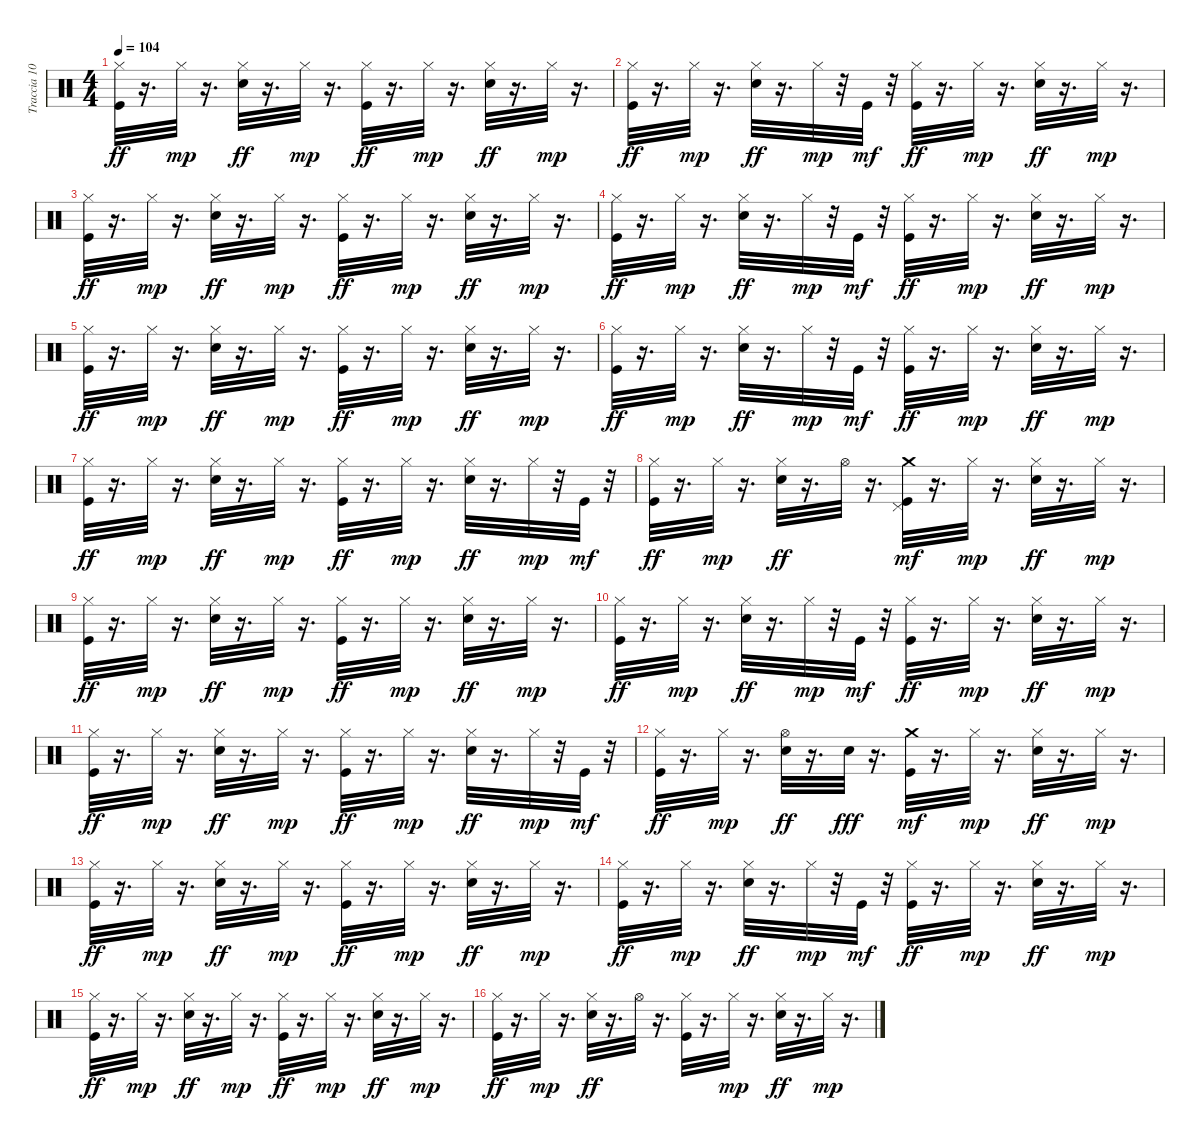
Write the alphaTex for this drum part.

\track ("Traccia 10" "Traccia 10") {instrument percussion}
\staff {score}
\articulation defaults
\ts (4 4)
\tempo 104
\clef neutral
\ks c
("Kick (hit)" "Hi-Hat (closed)").32{dy ff} r.16{d} "Hi-Hat (closed)".32{dy mp} r.16{d} ("Snare (hit) 2" "Hi-Hat (closed)").32{dy ff} r.16{d} "Hi-Hat (closed)".32{dy mp} r.16{d} ("Kick (hit)" "Hi-Hat (closed)").32{dy ff} r.16{d} "Hi-Hat (closed)".32{dy mp} r.16{d} ("Snare (hit) 2" "Hi-Hat (closed)").32{dy ff} r.16{d} "Hi-Hat (closed)".32{dy mp} r.16{d} |
("Kick (hit)" "Hi-Hat (closed)").32{dy ff} r.16{d} "Hi-Hat (closed)".32{dy mp} r.16{d} ("Snare (hit) 2" "Hi-Hat (closed)").32{dy ff} r.16{d} "Hi-Hat (closed)".32{dy mp} r.32 "Kick (hit)".32{dy mf} r.32 ("Kick (hit)" "Hi-Hat (closed)").32{dy ff} r.16{d} "Hi-Hat (closed)".32{dy mp} r.16{d} ("Snare (hit) 2" "Hi-Hat (closed)").32{dy ff} r.16{d} "Hi-Hat (closed)".32{dy mp} r.16{d} |
("Kick (hit)" "Hi-Hat (closed)").32{dy ff} r.16{d} "Hi-Hat (closed)".32{dy mp} r.16{d} ("Snare (hit) 2" "Hi-Hat (closed)").32{dy ff} r.16{d} "Hi-Hat (closed)".32{dy mp} r.16{d} ("Kick (hit)" "Hi-Hat (closed)").32{dy ff} r.16{d} "Hi-Hat (closed)".32{dy mp} r.16{d} ("Snare (hit) 2" "Hi-Hat (closed)").32{dy ff} r.16{d} "Hi-Hat (closed)".32{dy mp} r.16{d} |
("Kick (hit)" "Hi-Hat (closed)").32{dy ff} r.16{d} "Hi-Hat (closed)".32{dy mp} r.16{d} ("Snare (hit) 2" "Hi-Hat (closed)").32{dy ff} r.16{d} "Hi-Hat (closed)".32{dy mp} r.32 "Kick (hit)".32{dy mf} r.32 ("Kick (hit)" "Hi-Hat (closed)").32{dy ff} r.16{d} "Hi-Hat (closed)".32{dy mp} r.16{d} ("Snare (hit) 2" "Hi-Hat (closed)").32{dy ff} r.16{d} "Hi-Hat (closed)".32{dy mp} r.16{d} |
("Kick (hit)" "Hi-Hat (closed)").32{dy ff} r.16{d} "Hi-Hat (closed)".32{dy mp} r.16{d} ("Snare (hit) 2" "Hi-Hat (closed)").32{dy ff} r.16{d} "Hi-Hat (closed)".32{dy mp} r.16{d} ("Kick (hit)" "Hi-Hat (closed)").32{dy ff} r.16{d} "Hi-Hat (closed)".32{dy mp} r.16{d} ("Snare (hit) 2" "Hi-Hat (closed)").32{dy ff} r.16{d} "Hi-Hat (closed)".32{dy mp} r.16{d} |
("Kick (hit)" "Hi-Hat (closed)").32{dy ff} r.16{d} "Hi-Hat (closed)".32{dy mp} r.16{d} ("Snare (hit) 2" "Hi-Hat (closed)").32{dy ff} r.16{d} "Hi-Hat (closed)".32{dy mp} r.32 "Kick (hit)".32{dy mf} r.32 ("Kick (hit)" "Hi-Hat (closed)").32{dy ff} r.16{d} "Hi-Hat (closed)".32{dy mp} r.16{d} ("Snare (hit) 2" "Hi-Hat (closed)").32{dy ff} r.16{d} "Hi-Hat (closed)".32{dy mp} r.16{d} |
("Kick (hit)" "Hi-Hat (closed)").32{dy ff} r.16{d} "Hi-Hat (closed)".32{dy mp} r.16{d} ("Snare (hit) 2" "Hi-Hat (closed)").32{dy ff} r.16{d} "Hi-Hat (closed)".32{dy mp} r.16{d} ("Kick (hit)" "Hi-Hat (closed)").32{dy ff} r.16{d} "Hi-Hat (closed)".32{dy mp} r.16{d} ("Snare (hit) 2" "Hi-Hat (closed)").32{dy ff} r.16{d} "Hi-Hat (closed)".32{dy mp} r.32 "Kick (hit)".32{dy mf} r.32 |
("Kick (hit)" "Hi-Hat (closed)").32{dy ff} r.16{d} "Hi-Hat (closed)".32{dy mp} r.16{d} ("Snare (hit) 2" "Hi-Hat (closed)").32{dy ff} r.16{d} "Hi-Hat (open)".32 r.16{d} ("Kick (hit)" "Pedal Hi-Hat (hit)" "Crash medium (hit)").32{dy mf} r.16{d} "Hi-Hat (closed)".32{dy mp} r.16{d} ("Snare (hit) 2" "Hi-Hat (closed)").32{dy ff} r.16{d} "Hi-Hat (closed)".32{dy mp} r.16{d} |
("Kick (hit)" "Hi-Hat (closed)").32{dy ff} r.16{d} "Hi-Hat (closed)".32{dy mp} r.16{d} ("Snare (hit) 2" "Hi-Hat (closed)").32{dy ff} r.16{d} "Hi-Hat (closed)".32{dy mp} r.16{d} ("Kick (hit)" "Hi-Hat (closed)").32{dy ff} r.16{d} "Hi-Hat (closed)".32{dy mp} r.16{d} ("Snare (hit) 2" "Hi-Hat (closed)").32{dy ff} r.16{d} "Hi-Hat (closed)".32{dy mp} r.16{d} |
("Kick (hit)" "Hi-Hat (closed)").32{dy ff} r.16{d} "Hi-Hat (closed)".32{dy mp} r.16{d} ("Snare (hit) 2" "Hi-Hat (closed)").32{dy ff} r.16{d} "Hi-Hat (closed)".32{dy mp} r.32 "Kick (hit)".32{dy mf} r.32 ("Kick (hit)" "Hi-Hat (closed)").32{dy ff} r.16{d} "Hi-Hat (closed)".32{dy mp} r.16{d} ("Snare (hit) 2" "Hi-Hat (closed)").32{dy ff} r.16{d} "Hi-Hat (closed)".32{dy mp} r.16{d} |
("Kick (hit)" "Hi-Hat (closed)").32{dy ff} r.16{d} "Hi-Hat (closed)".32{dy mp} r.16{d} ("Snare (hit) 2" "Hi-Hat (closed)").32{dy ff} r.16{d} "Hi-Hat (closed)".32{dy mp} r.16{d} ("Kick (hit)" "Hi-Hat (closed)").32{dy ff} r.16{d} "Hi-Hat (closed)".32{dy mp} r.16{d} ("Snare (hit) 2" "Hi-Hat (closed)").32{dy ff} r.16{d} "Hi-Hat (closed)".32{dy mp} r.32 "Kick (hit)".32{dy mf} r.32 |
("Kick (hit)" "Hi-Hat (closed)").32{dy ff} r.16{d} "Hi-Hat (closed)".32{dy mp} r.16{d} ("Snare (hit) 2" "Hi-Hat (open)").32{dy ff} r.16{d} "Snare (hit) 2".32{dy fff} r.16{d} ("Kick (hit)" "Crash medium (hit)").32{dy mf} r.16{d} "Hi-Hat (closed)".32{dy mp} r.16{d} ("Snare (hit) 2" "Hi-Hat (closed)").32{dy ff} r.16{d} "Hi-Hat (closed)".32{dy mp} r.16{d} |
("Kick (hit)" "Hi-Hat (closed)").32{dy ff} r.16{d} "Hi-Hat (closed)".32{dy mp} r.16{d} ("Snare (hit) 2" "Hi-Hat (closed)").32{dy ff} r.16{d} "Hi-Hat (closed)".32{dy mp} r.16{d} ("Kick (hit)" "Hi-Hat (closed)").32{dy ff} r.16{d} "Hi-Hat (closed)".32{dy mp} r.16{d} ("Snare (hit) 2" "Hi-Hat (closed)").32{dy ff} r.16{d} "Hi-Hat (closed)".32{dy mp} r.16{d} |
("Kick (hit)" "Hi-Hat (closed)").32{dy ff} r.16{d} "Hi-Hat (closed)".32{dy mp} r.16{d} ("Snare (hit) 2" "Hi-Hat (closed)").32{dy ff} r.16{d} "Hi-Hat (closed)".32{dy mp} r.32 "Kick (hit)".32{dy mf} r.32 ("Kick (hit)" "Hi-Hat (closed)").32{dy ff} r.16{d} "Hi-Hat (closed)".32{dy mp} r.16{d} ("Snare (hit) 2" "Hi-Hat (closed)").32{dy ff} r.16{d} "Hi-Hat (closed)".32{dy mp} r.16{d} |
("Kick (hit)" "Hi-Hat (closed)").32{dy ff} r.16{d} "Hi-Hat (closed)".32{dy mp} r.16{d} ("Snare (hit) 2" "Hi-Hat (closed)").32{dy ff} r.16{d} "Hi-Hat (closed)".32{dy mp} r.16{d} ("Kick (hit)" "Hi-Hat (closed)").32{dy ff} r.16{d} "Hi-Hat (closed)".32{dy mp} r.16{d} ("Snare (hit) 2" "Hi-Hat (closed)").32{dy ff} r.16{d} "Hi-Hat (closed)".32{dy mp} r.16{d} |
("Kick (hit)" "Hi-Hat (closed)").32{dy ff} r.16{d} "Hi-Hat (closed)".32{dy mp} r.16{d} ("Snare (hit) 2" "Hi-Hat (closed)").32{dy ff} r.16{d} "Hi-Hat (open)".32 r.16{d} ("Kick (hit)" "Hi-Hat (closed)").32 r.16{d} "Hi-Hat (closed)".32{dy mp} r.16{d} ("Snare (hit) 2" "Hi-Hat (closed)").32{dy ff} r.16{d} "Hi-Hat (closed)".32{dy mp} r.16{d}
